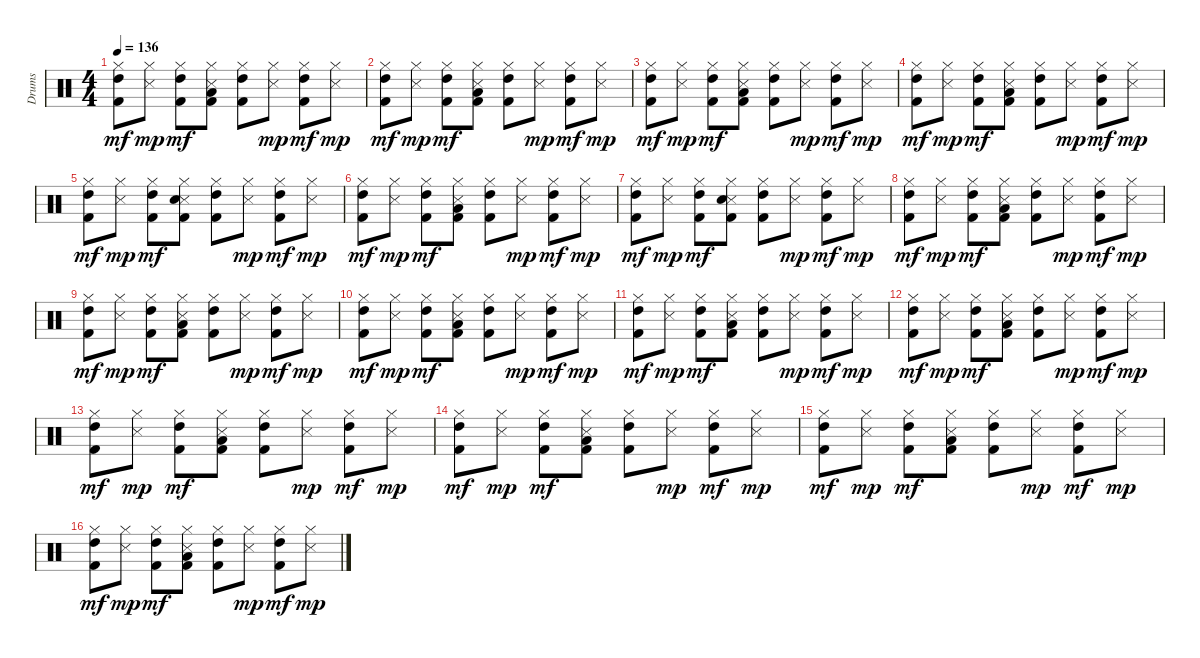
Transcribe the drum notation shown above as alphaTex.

\track ("Drums" "Drums") {instrument percussion}
\staff {score}
\articulation defaults
\ts (4 4)
\tempo 136
\clef neutral
\ks c
("Hi-Hat (closed)" "High Tom (hit)" "Kick (hit) 2").8{dy mf} ("Hi-Hat (closed)" "Metronome (hit)").8{dy mp} ("Hi-Hat (closed)" "High Tom (hit)" "Kick (hit) 2").8{dy mf} ("Hi-Hat (closed)" "Metronome (hit)" "Low Floor Tom (hit)" "Kick (hit) 2").8 ("Hi-Hat (closed)" "High Tom (hit)" "Kick (hit) 2").8 ("Hi-Hat (closed)" "Metronome (hit)").8{dy mp} ("Hi-Hat (closed)" "High Tom (hit)" "Kick (hit) 2").8{dy mf} ("Hi-Hat (closed)" "Metronome (hit)").8{dy mp} |
("Hi-Hat (closed)" "High Tom (hit)" "Kick (hit) 2").8{dy mf} ("Hi-Hat (closed)" "Metronome (hit)").8{dy mp} ("Hi-Hat (closed)" "High Tom (hit)" "Kick (hit) 2").8{dy mf} ("Hi-Hat (closed)" "Metronome (hit)" "Low Floor Tom (hit)" "Kick (hit) 2").8 ("Hi-Hat (closed)" "High Tom (hit)" "Kick (hit) 2").8 ("Hi-Hat (closed)" "Metronome (hit)").8{dy mp} ("Hi-Hat (closed)" "High Tom (hit)" "Kick (hit) 2").8{dy mf} ("Hi-Hat (closed)" "Metronome (hit)").8{dy mp} |
("Hi-Hat (closed)" "High Tom (hit)" "Kick (hit) 2").8{dy mf} ("Hi-Hat (closed)" "Metronome (hit)").8{dy mp} ("Hi-Hat (closed)" "High Tom (hit)" "Kick (hit) 2").8{dy mf} ("Hi-Hat (closed)" "Metronome (hit)" "Low Floor Tom (hit)" "Kick (hit) 2").8 ("Hi-Hat (closed)" "High Tom (hit)" "Kick (hit) 2").8 ("Hi-Hat (closed)" "Metronome (hit)").8{dy mp} ("Hi-Hat (closed)" "High Tom (hit)" "Kick (hit) 2").8{dy mf} ("Hi-Hat (closed)" "Metronome (hit)").8{dy mp} |
("Hi-Hat (closed)" "High Tom (hit)" "Kick (hit) 2").8{dy mf} ("Hi-Hat (closed)" "Metronome (hit)").8{dy mp} ("Hi-Hat (closed)" "High Tom (hit)" "Kick (hit) 2").8{dy mf} ("Hi-Hat (closed)" "Metronome (hit)" "Low Floor Tom (hit)" "Kick (hit) 2").8 ("Hi-Hat (closed)" "High Tom (hit)" "Kick (hit) 2").8 ("Hi-Hat (closed)" "Metronome (hit)").8{dy mp} ("Hi-Hat (closed)" "High Tom (hit)" "Kick (hit) 2").8{dy mf} ("Hi-Hat (closed)" "Metronome (hit)").8{dy mp} |
("Hi-Hat (closed)" "High Tom (hit)" "Kick (hit) 2").8{dy mf} ("Hi-Hat (closed)" "Metronome (hit)").8{dy mp} ("Hi-Hat (closed)" "High Tom (hit)" "Kick (hit) 2").8{dy mf} ("Hi-Hat (closed)" "Metronome (hit)" "Electric Snare (hit)" "Kick (hit) 2").8 ("Hi-Hat (closed)" "High Tom (hit)" "Kick (hit) 2").8 ("Hi-Hat (closed)" "Metronome (hit)").8{dy mp} ("Hi-Hat (closed)" "High Tom (hit)" "Kick (hit) 2").8{dy mf} ("Hi-Hat (closed)" "Metronome (hit)").8{dy mp} |
("Hi-Hat (closed)" "High Tom (hit)" "Kick (hit) 2").8{dy mf} ("Hi-Hat (closed)" "Metronome (hit)").8{dy mp} ("Hi-Hat (closed)" "High Tom (hit)" "Kick (hit) 2").8{dy mf} ("Hi-Hat (closed)" "Metronome (hit)" "Low Floor Tom (hit)" "Kick (hit) 2").8 ("Hi-Hat (closed)" "High Tom (hit)" "Kick (hit) 2").8 ("Hi-Hat (closed)" "Metronome (hit)").8{dy mp} ("Hi-Hat (closed)" "High Tom (hit)" "Kick (hit) 2").8{dy mf} ("Hi-Hat (closed)" "Metronome (hit)").8{dy mp} |
("Hi-Hat (closed)" "High Tom (hit)" "Kick (hit) 2").8{dy mf} ("Hi-Hat (closed)" "Metronome (hit)").8{dy mp} ("Hi-Hat (closed)" "High Tom (hit)" "Kick (hit) 2").8{dy mf} ("Hi-Hat (closed)" "Metronome (hit)" "Electric Snare (hit)" "Kick (hit) 2").8 ("Hi-Hat (closed)" "High Tom (hit)" "Kick (hit) 2").8 ("Hi-Hat (closed)" "Metronome (hit)").8{dy mp} ("Hi-Hat (closed)" "High Tom (hit)" "Kick (hit) 2").8{dy mf} ("Hi-Hat (closed)" "Metronome (hit)").8{dy mp} |
("Hi-Hat (closed)" "High Tom (hit)" "Kick (hit) 2").8{dy mf} ("Hi-Hat (closed)" "Metronome (hit)").8{dy mp} ("Hi-Hat (closed)" "High Tom (hit)" "Kick (hit) 2").8{dy mf} ("Hi-Hat (closed)" "Metronome (hit)" "Low Floor Tom (hit)" "Kick (hit) 2").8 ("Hi-Hat (closed)" "High Tom (hit)" "Kick (hit) 2").8 ("Hi-Hat (closed)" "Metronome (hit)").8{dy mp} ("Hi-Hat (closed)" "High Tom (hit)" "Kick (hit) 2").8{dy mf} ("Hi-Hat (closed)" "Metronome (hit)").8{dy mp} |
("Hi-Hat (closed)" "High Tom (hit)" "Kick (hit) 2").8{dy mf} ("Hi-Hat (closed)" "Metronome (hit)").8{dy mp} ("Hi-Hat (closed)" "High Tom (hit)" "Kick (hit) 2").8{dy mf} ("Hi-Hat (closed)" "Metronome (hit)" "Low Floor Tom (hit)" "Kick (hit) 2").8 ("Hi-Hat (closed)" "High Tom (hit)" "Kick (hit) 2").8 ("Hi-Hat (closed)" "Metronome (hit)").8{dy mp} ("Hi-Hat (closed)" "High Tom (hit)" "Kick (hit) 2").8{dy mf} ("Hi-Hat (closed)" "Metronome (hit)").8{dy mp} |
("Hi-Hat (closed)" "High Tom (hit)" "Kick (hit) 2").8{dy mf} ("Hi-Hat (closed)" "Metronome (hit)").8{dy mp} ("Hi-Hat (closed)" "High Tom (hit)" "Kick (hit) 2").8{dy mf} ("Hi-Hat (closed)" "Metronome (hit)" "Low Floor Tom (hit)" "Kick (hit) 2").8 ("Hi-Hat (closed)" "High Tom (hit)" "Kick (hit) 2").8 ("Hi-Hat (closed)" "Metronome (hit)").8{dy mp} ("Hi-Hat (closed)" "High Tom (hit)" "Kick (hit) 2").8{dy mf} ("Hi-Hat (closed)" "Metronome (hit)").8{dy mp} |
("Hi-Hat (closed)" "High Tom (hit)" "Kick (hit) 2").8{dy mf} ("Hi-Hat (closed)" "Metronome (hit)").8{dy mp} ("Hi-Hat (closed)" "High Tom (hit)" "Kick (hit) 2").8{dy mf} ("Hi-Hat (closed)" "Metronome (hit)" "Low Floor Tom (hit)" "Kick (hit) 2").8 ("Hi-Hat (closed)" "High Tom (hit)" "Kick (hit) 2").8 ("Hi-Hat (closed)" "Metronome (hit)").8{dy mp} ("Hi-Hat (closed)" "High Tom (hit)" "Kick (hit) 2").8{dy mf} ("Hi-Hat (closed)" "Metronome (hit)").8{dy mp} |
("Hi-Hat (closed)" "High Tom (hit)" "Kick (hit) 2").8{dy mf} ("Hi-Hat (closed)" "Metronome (hit)").8{dy mp} ("Hi-Hat (closed)" "High Tom (hit)" "Kick (hit) 2").8{dy mf} ("Hi-Hat (closed)" "Metronome (hit)" "Low Floor Tom (hit)" "Kick (hit) 2").8 ("Hi-Hat (closed)" "High Tom (hit)" "Kick (hit) 2").8 ("Hi-Hat (closed)" "Metronome (hit)").8{dy mp} ("Hi-Hat (closed)" "High Tom (hit)" "Kick (hit) 2").8{dy mf} ("Hi-Hat (closed)" "Metronome (hit)").8{dy mp} |
("Hi-Hat (closed)" "High Tom (hit)" "Kick (hit) 2").8{dy mf} ("Hi-Hat (closed)" "Metronome (hit)").8{dy mp} ("Hi-Hat (closed)" "High Tom (hit)" "Kick (hit) 2").8{dy mf} ("Hi-Hat (closed)" "Metronome (hit)" "Low Floor Tom (hit)" "Kick (hit) 2").8 ("Hi-Hat (closed)" "High Tom (hit)" "Kick (hit) 2").8 ("Hi-Hat (closed)" "Metronome (hit)").8{dy mp} ("Hi-Hat (closed)" "High Tom (hit)" "Kick (hit) 2").8{dy mf} ("Hi-Hat (closed)" "Metronome (hit)").8{dy mp} |
("Hi-Hat (closed)" "High Tom (hit)" "Kick (hit) 2").8{dy mf} ("Hi-Hat (closed)" "Metronome (hit)").8{dy mp} ("Hi-Hat (closed)" "High Tom (hit)" "Kick (hit) 2").8{dy mf} ("Hi-Hat (closed)" "Metronome (hit)" "Low Floor Tom (hit)" "Kick (hit) 2").8 ("Hi-Hat (closed)" "High Tom (hit)" "Kick (hit) 2").8 ("Hi-Hat (closed)" "Metronome (hit)").8{dy mp} ("Hi-Hat (closed)" "High Tom (hit)" "Kick (hit) 2").8{dy mf} ("Hi-Hat (closed)" "Metronome (hit)").8{dy mp} |
("Hi-Hat (closed)" "High Tom (hit)" "Kick (hit) 2").8{dy mf} ("Hi-Hat (closed)" "Metronome (hit)").8{dy mp} ("Hi-Hat (closed)" "High Tom (hit)" "Kick (hit) 2").8{dy mf} ("Hi-Hat (closed)" "Metronome (hit)" "Low Floor Tom (hit)" "Kick (hit) 2").8 ("Hi-Hat (closed)" "High Tom (hit)" "Kick (hit) 2").8 ("Hi-Hat (closed)" "Metronome (hit)").8{dy mp} ("Hi-Hat (closed)" "High Tom (hit)" "Kick (hit) 2").8{dy mf} ("Hi-Hat (closed)" "Metronome (hit)").8{dy mp} |
("Hi-Hat (closed)" "High Tom (hit)" "Kick (hit) 2").8{dy mf} ("Hi-Hat (closed)" "Metronome (hit)").8{dy mp} ("Hi-Hat (closed)" "High Tom (hit)" "Kick (hit) 2").8{dy mf} ("Hi-Hat (closed)" "Metronome (hit)" "Low Floor Tom (hit)" "Kick (hit) 2").8 ("Hi-Hat (closed)" "High Tom (hit)" "Kick (hit) 2").8 ("Hi-Hat (closed)" "Metronome (hit)").8{dy mp} ("Hi-Hat (closed)" "High Tom (hit)" "Kick (hit) 2").8{dy mf} ("Hi-Hat (closed)" "Metronome (hit)").8{dy mp}
